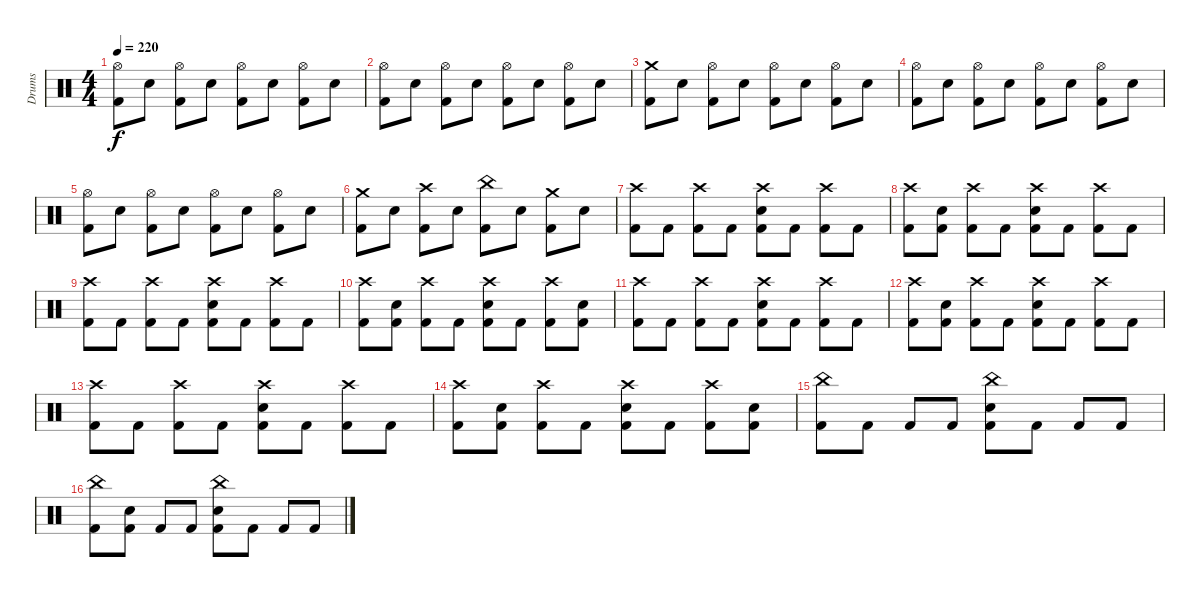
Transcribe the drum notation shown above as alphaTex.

\track ("Drums" "Drums") {instrument percussion}
\staff {score}
\articulation defaults
\ts (4 4)
\tempo 220
\clef neutral
\ks c
("Kick (hit) 2" "Hi-Hat (open)").8{dy f} "Electric Snare (hit)".8 ("Kick (hit) 2" "Hi-Hat (open)").8 "Electric Snare (hit)".8 ("Kick (hit) 2" "Hi-Hat (open)").8 "Electric Snare (hit)".8 ("Kick (hit) 2" "Hi-Hat (open)").8 "Electric Snare (hit)".8 |
("Kick (hit) 2" "Hi-Hat (open)").8 "Electric Snare (hit)".8 ("Kick (hit) 2" "Hi-Hat (open)").8 "Electric Snare (hit)".8 ("Kick (hit) 2" "Hi-Hat (open)").8 "Electric Snare (hit)".8 ("Kick (hit) 2" "Hi-Hat (open)").8 "Electric Snare (hit)".8 |
("Kick (hit) 2" "Crash medium (hit)").8 "Electric Snare (hit)".8 ("Kick (hit) 2" "Hi-Hat (open)").8 "Electric Snare (hit)".8 ("Kick (hit) 2" "Hi-Hat (open)").8 "Electric Snare (hit)".8 ("Kick (hit) 2" "Hi-Hat (open)").8 "Electric Snare (hit)".8 |
("Kick (hit) 2" "Hi-Hat (open)").8 "Electric Snare (hit)".8 ("Kick (hit) 2" "Hi-Hat (open)").8 "Electric Snare (hit)".8 ("Kick (hit) 2" "Hi-Hat (open)").8 "Electric Snare (hit)".8 ("Kick (hit) 2" "Hi-Hat (open)").8 "Electric Snare (hit)".8 |
("Kick (hit) 2" "Hi-Hat (open)").8 "Electric Snare (hit)".8 ("Kick (hit) 2" "Hi-Hat (open)").8 "Electric Snare (hit)".8 ("Kick (hit) 2" "Hi-Hat (open)").8 "Electric Snare (hit)".8 ("Kick (hit) 2" "Hi-Hat (open)").8 "Electric Snare (hit)".8 |
("Kick (hit) 2" "Crash medium (hit)").8 "Electric Snare (hit)".8 ("Kick (hit) 2" "Crash high (hit)").8 "Electric Snare (hit)".8 ("Kick (hit) 2" "China (hit)").8 "Electric Snare (hit)".8 ("Kick (hit) 2" "Crash medium (hit)").8 "Electric Snare (hit)".8 |
("Kick (hit) 2" "Crash high (hit)").8 "Kick (hit) 2".8 ("Kick (hit) 2" "Crash high (hit)").8 "Kick (hit) 2".8 ("Kick (hit) 2" "Crash high (hit)" "Electric Snare (hit)").8 "Kick (hit) 2".8 ("Kick (hit) 2" "Crash high (hit)").8 "Kick (hit) 2".8 |
("Kick (hit) 2" "Crash high (hit)").8 ("Kick (hit) 2" "Electric Snare (hit)").8 ("Kick (hit) 2" "Crash high (hit)").8 "Kick (hit) 2".8 ("Kick (hit) 2" "Crash high (hit)" "Electric Snare (hit)").8 "Kick (hit) 2".8 ("Kick (hit) 2" "Crash high (hit)").8 "Kick (hit) 2".8 |
("Kick (hit) 2" "Crash high (hit)").8 "Kick (hit) 2".8 ("Kick (hit) 2" "Crash high (hit)").8 "Kick (hit) 2".8 ("Kick (hit) 2" "Crash high (hit)" "Electric Snare (hit)").8 "Kick (hit) 2".8 ("Kick (hit) 2" "Crash high (hit)").8 "Kick (hit) 2".8 |
("Kick (hit) 2" "Crash high (hit)").8 ("Kick (hit) 2" "Electric Snare (hit)").8 ("Kick (hit) 2" "Crash high (hit)").8 "Kick (hit) 2".8 ("Kick (hit) 2" "Crash high (hit)" "Electric Snare (hit)").8 "Kick (hit) 2".8 ("Kick (hit) 2" "Crash high (hit)").8 ("Kick (hit) 2" "Electric Snare (hit)").8 |
("Kick (hit) 2" "Crash high (hit)").8 "Kick (hit) 2".8 ("Kick (hit) 2" "Crash high (hit)").8 "Kick (hit) 2".8 ("Kick (hit) 2" "Crash high (hit)" "Electric Snare (hit)").8 "Kick (hit) 2".8 ("Kick (hit) 2" "Crash high (hit)").8 "Kick (hit) 2".8 |
("Kick (hit) 2" "Crash high (hit)").8 ("Kick (hit) 2" "Electric Snare (hit)").8 ("Kick (hit) 2" "Crash high (hit)").8 "Kick (hit) 2".8 ("Kick (hit) 2" "Crash high (hit)" "Electric Snare (hit)").8 "Kick (hit) 2".8 ("Kick (hit) 2" "Crash high (hit)").8 "Kick (hit) 2".8 |
("Kick (hit) 2" "Crash high (hit)").8 "Kick (hit) 2".8 ("Kick (hit) 2" "Crash high (hit)").8 "Kick (hit) 2".8 ("Kick (hit) 2" "Crash high (hit)" "Electric Snare (hit)").8 "Kick (hit) 2".8 ("Kick (hit) 2" "Crash high (hit)").8 "Kick (hit) 2".8 |
("Kick (hit) 2" "Crash high (hit)").8 ("Kick (hit) 2" "Electric Snare (hit)").8 ("Kick (hit) 2" "Crash high (hit)").8 "Kick (hit) 2".8 ("Kick (hit) 2" "Crash high (hit)" "Electric Snare (hit)").8 "Kick (hit) 2".8 ("Kick (hit) 2" "Crash high (hit)").8 ("Kick (hit) 2" "Electric Snare (hit)").8 |
("Kick (hit) 2" "China (hit)").8 "Kick (hit) 2".8 "Kick (hit) 2".8 "Kick (hit) 2".8 ("Kick (hit) 2" "China (hit)" "Electric Snare (hit)").8 "Kick (hit) 2".8 "Kick (hit) 2".8 "Kick (hit) 2".8 |
("Kick (hit) 2" "China (hit)").8 ("Kick (hit) 2" "Electric Snare (hit)").8 "Kick (hit) 2".8 "Kick (hit) 2".8 ("Kick (hit) 2" "China (hit)" "Electric Snare (hit)").8 "Kick (hit) 2".8 "Kick (hit) 2".8 "Kick (hit) 2".8
